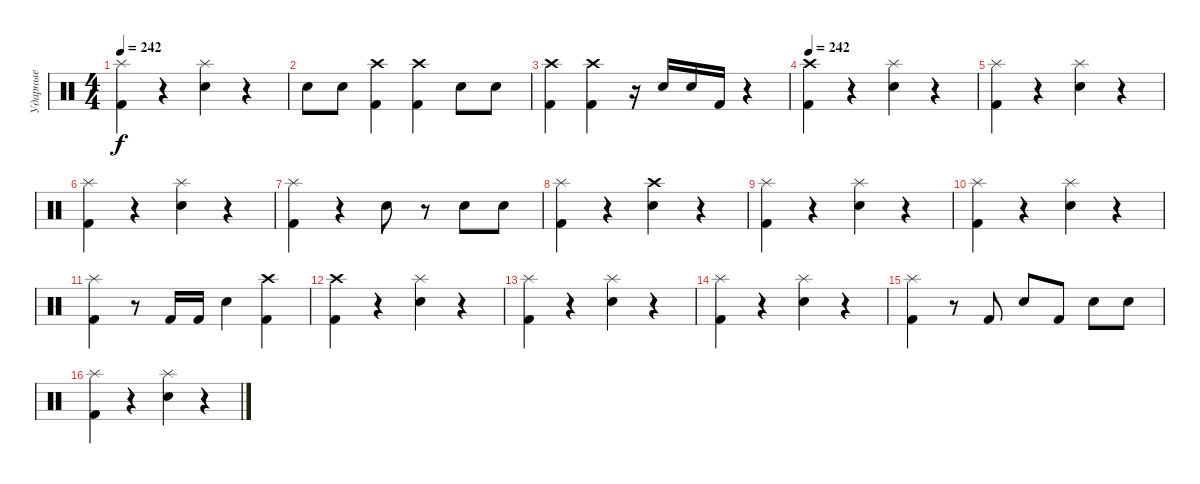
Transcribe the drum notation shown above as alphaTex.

\track ("Ударные" "Ударные") {instrument percussion}
\staff {score}
\articulation defaults
\ts (4 4)
\tempo 242
\clef neutral
\ks c
("Splash (hit)" "Kick (hit) 2").4{dy f} r.4 ("Splash (hit)" "Electric Snare (hit)").4 r.4 |
"Electric Snare (hit)".8 "Electric Snare (hit)".8 ("Crash high (hit)" "Kick (hit) 2").4 ("Crash high (hit)" "Kick (hit) 2").4 "Electric Snare (hit)".8 "Electric Snare (hit)".8 |
("Crash high (hit)" "Kick (hit) 2").4 ("Crash high (hit)" "Kick (hit) 2").4 r.16 "Electric Snare (hit)".16 "Electric Snare (hit)".16 "Kick (hit) 2".16 r.4 |
\tempo 242
("Crash high (hit)" "Kick (hit) 2").4 r.4 ("Splash (hit)" "Electric Snare (hit)").4 r.4 |
("Splash (hit)" "Kick (hit) 2").4 r.4 ("Splash (hit)" "Electric Snare (hit)").4 r.4 |
("Splash (hit)" "Kick (hit) 2").4 r.4 ("Splash (hit)" "Electric Snare (hit)").4 r.4 |
("Splash (hit)" "Kick (hit) 2").4 r.4 "Electric Snare (hit)".8 r.8 "Electric Snare (hit)".8 "Electric Snare (hit)".8 |
("Splash (hit)" "Kick (hit) 2").4 r.4 ("Crash high (hit)" "Electric Snare (hit)").4 r.4 |
("Splash (hit)" "Kick (hit) 2").4 r.4 ("Splash (hit)" "Electric Snare (hit)").4 r.4 |
("Splash (hit)" "Kick (hit) 2").4 r.4 ("Splash (hit)" "Electric Snare (hit)").4 r.4 |
("Splash (hit)" "Kick (hit) 2").4 r.8 "Kick (hit) 2".16 "Kick (hit) 2".16 "Electric Snare (hit)".4 ("Crash high (hit)" "Kick (hit) 2").4 |
("Crash high (hit)" "Kick (hit) 2").4 r.4 ("Splash (hit)" "Electric Snare (hit)").4 r.4 |
("Splash (hit)" "Kick (hit) 2").4 r.4 ("Splash (hit)" "Electric Snare (hit)").4 r.4 |
("Splash (hit)" "Kick (hit) 2").4 r.4 ("Splash (hit)" "Electric Snare (hit)").4 r.4 |
("Splash (hit)" "Kick (hit) 2").4 r.8 "Kick (hit) 2".8 "Electric Snare (hit)".8 "Kick (hit) 2".8 "Electric Snare (hit)".8 "Electric Snare (hit)".8 |
("Splash (hit)" "Kick (hit) 2").4 r.4 ("Splash (hit)" "Electric Snare (hit)").4 r.4
